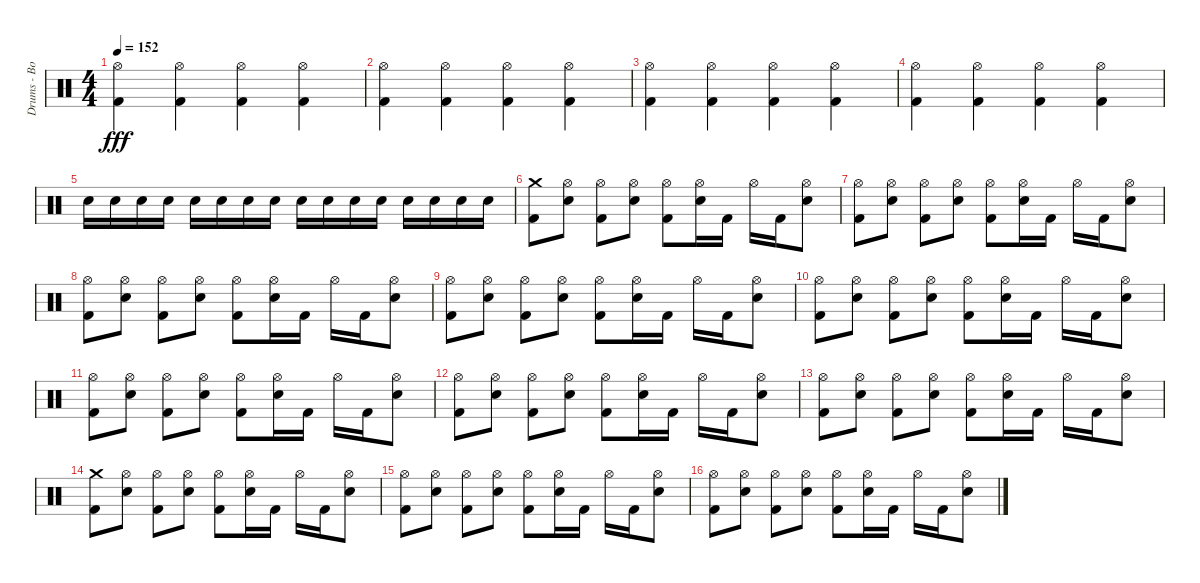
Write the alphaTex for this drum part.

\track ("Drums - Bobby Schayer" "Drums - Bo") {instrument percussion}
\staff {score}
\articulation defaults
\ts (4 4)
\tempo 152
\clef neutral
\ks c
("Hi-Hat (open)" "Kick (hit) 2").4{dy fff} ("Hi-Hat (open)" "Kick (hit) 2").4 ("Hi-Hat (open)" "Kick (hit) 2").4 ("Hi-Hat (open)" "Kick (hit) 2").4 |
("Hi-Hat (open)" "Kick (hit) 2").4 ("Hi-Hat (open)" "Kick (hit) 2").4 ("Hi-Hat (open)" "Kick (hit) 2").4 ("Hi-Hat (open)" "Kick (hit) 2").4 |
("Hi-Hat (open)" "Kick (hit) 2").4 ("Hi-Hat (open)" "Kick (hit) 2").4 ("Hi-Hat (open)" "Kick (hit) 2").4 ("Hi-Hat (open)" "Kick (hit) 2").4 |
("Hi-Hat (open)" "Kick (hit) 2").4 ("Hi-Hat (open)" "Kick (hit) 2").4 ("Hi-Hat (open)" "Kick (hit) 2").4 ("Hi-Hat (open)" "Kick (hit) 2").4 |
"Electric Snare (hit)".16 "Electric Snare (hit)".16 "Electric Snare (hit)".16 "Electric Snare (hit)".16 "Electric Snare (hit)".16 "Electric Snare (hit)".16 "Electric Snare (hit)".16 "Electric Snare (hit)".16 "Electric Snare (hit)".16 "Electric Snare (hit)".16 "Electric Snare (hit)".16 "Electric Snare (hit)".16 "Electric Snare (hit)".16 "Electric Snare (hit)".16 "Electric Snare (hit)".16 "Electric Snare (hit)".16 |
("Kick (hit) 2" "Crash medium (hit)").8 ("Electric Snare (hit)" "Hi-Hat (open)").8 ("Kick (hit) 2" "Hi-Hat (open)").8 ("Electric Snare (hit)" "Hi-Hat (open)").8 ("Kick (hit) 2" "Hi-Hat (open)").8 ("Electric Snare (hit)" "Hi-Hat (open)").16 "Kick (hit) 2".16 "Hi-Hat (open)".16 "Kick (hit) 2".16 ("Electric Snare (hit)" "Hi-Hat (open)").8 |
("Kick (hit) 2" "Hi-Hat (open)").8 ("Electric Snare (hit)" "Hi-Hat (open)").8 ("Kick (hit) 2" "Hi-Hat (open)").8 ("Electric Snare (hit)" "Hi-Hat (open)").8 ("Kick (hit) 2" "Hi-Hat (open)").8 ("Electric Snare (hit)" "Hi-Hat (open)").16 "Kick (hit) 2".16 "Hi-Hat (open)".16 "Kick (hit) 2".16 ("Electric Snare (hit)" "Hi-Hat (open)").8 |
("Kick (hit) 2" "Hi-Hat (open)").8 ("Electric Snare (hit)" "Hi-Hat (open)").8 ("Kick (hit) 2" "Hi-Hat (open)").8 ("Electric Snare (hit)" "Hi-Hat (open)").8 ("Kick (hit) 2" "Hi-Hat (open)").8 ("Electric Snare (hit)" "Hi-Hat (open)").16 "Kick (hit) 2".16 "Hi-Hat (open)".16 "Kick (hit) 2".16 ("Electric Snare (hit)" "Hi-Hat (open)").8 |
("Kick (hit) 2" "Hi-Hat (open)").8 ("Electric Snare (hit)" "Hi-Hat (open)").8 ("Kick (hit) 2" "Hi-Hat (open)").8 ("Electric Snare (hit)" "Hi-Hat (open)").8 ("Kick (hit) 2" "Hi-Hat (open)").8 ("Electric Snare (hit)" "Hi-Hat (open)").16 "Kick (hit) 2".16 "Hi-Hat (open)".16 "Kick (hit) 2".16 ("Electric Snare (hit)" "Hi-Hat (open)").8 |
("Kick (hit) 2" "Hi-Hat (open)").8 ("Electric Snare (hit)" "Hi-Hat (open)").8 ("Kick (hit) 2" "Hi-Hat (open)").8 ("Electric Snare (hit)" "Hi-Hat (open)").8 ("Kick (hit) 2" "Hi-Hat (open)").8 ("Electric Snare (hit)" "Hi-Hat (open)").16 "Kick (hit) 2".16 "Hi-Hat (open)".16 "Kick (hit) 2".16 ("Electric Snare (hit)" "Hi-Hat (open)").8 |
("Kick (hit) 2" "Hi-Hat (open)").8 ("Electric Snare (hit)" "Hi-Hat (open)").8 ("Kick (hit) 2" "Hi-Hat (open)").8 ("Electric Snare (hit)" "Hi-Hat (open)").8 ("Kick (hit) 2" "Hi-Hat (open)").8 ("Electric Snare (hit)" "Hi-Hat (open)").16 "Kick (hit) 2".16 "Hi-Hat (open)".16 "Kick (hit) 2".16 ("Electric Snare (hit)" "Hi-Hat (open)").8 |
("Kick (hit) 2" "Hi-Hat (open)").8 ("Electric Snare (hit)" "Hi-Hat (open)").8 ("Kick (hit) 2" "Hi-Hat (open)").8 ("Electric Snare (hit)" "Hi-Hat (open)").8 ("Kick (hit) 2" "Hi-Hat (open)").8 ("Electric Snare (hit)" "Hi-Hat (open)").16 "Kick (hit) 2".16 "Hi-Hat (open)".16 "Kick (hit) 2".16 ("Electric Snare (hit)" "Hi-Hat (open)").8 |
("Kick (hit) 2" "Hi-Hat (open)").8 ("Electric Snare (hit)" "Hi-Hat (open)").8 ("Kick (hit) 2" "Hi-Hat (open)").8 ("Electric Snare (hit)" "Hi-Hat (open)").8 ("Kick (hit) 2" "Hi-Hat (open)").8 ("Electric Snare (hit)" "Hi-Hat (open)").16 "Kick (hit) 2".16 "Hi-Hat (open)".16 "Kick (hit) 2".16 ("Electric Snare (hit)" "Hi-Hat (open)").8 |
("Kick (hit) 2" "Crash medium (hit)").8 ("Electric Snare (hit)" "Hi-Hat (open)").8 ("Kick (hit) 2" "Hi-Hat (open)").8 ("Electric Snare (hit)" "Hi-Hat (open)").8 ("Kick (hit) 2" "Hi-Hat (open)").8 ("Electric Snare (hit)" "Hi-Hat (open)").16 "Kick (hit) 2".16 "Hi-Hat (open)".16 "Kick (hit) 2".16 ("Electric Snare (hit)" "Hi-Hat (open)").8 |
("Kick (hit) 2" "Hi-Hat (open)").8 ("Electric Snare (hit)" "Hi-Hat (open)").8 ("Kick (hit) 2" "Hi-Hat (open)").8 ("Electric Snare (hit)" "Hi-Hat (open)").8 ("Kick (hit) 2" "Hi-Hat (open)").8 ("Electric Snare (hit)" "Hi-Hat (open)").16 "Kick (hit) 2".16 "Hi-Hat (open)".16 "Kick (hit) 2".16 ("Electric Snare (hit)" "Hi-Hat (open)").8 |
("Kick (hit) 2" "Hi-Hat (open)").8 ("Electric Snare (hit)" "Hi-Hat (open)").8 ("Kick (hit) 2" "Hi-Hat (open)").8 ("Electric Snare (hit)" "Hi-Hat (open)").8 ("Kick (hit) 2" "Hi-Hat (open)").8 ("Electric Snare (hit)" "Hi-Hat (open)").16 "Kick (hit) 2".16 "Hi-Hat (open)".16 "Kick (hit) 2".16 ("Electric Snare (hit)" "Hi-Hat (open)").8
